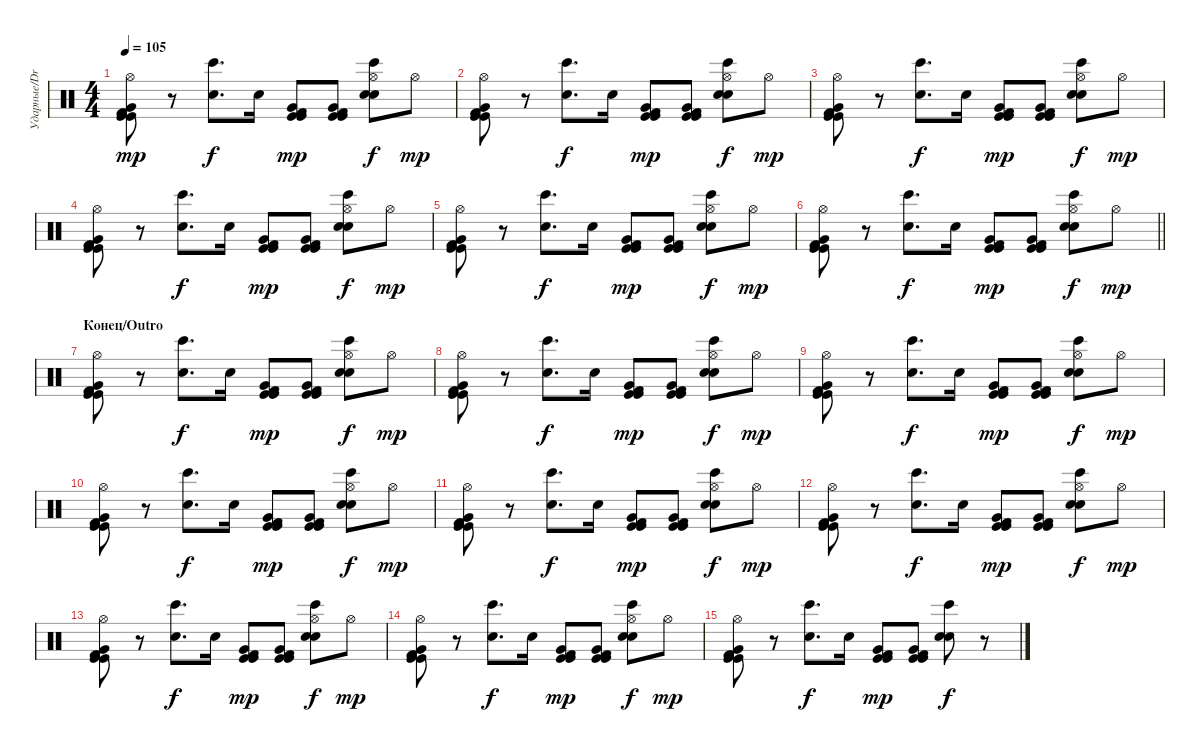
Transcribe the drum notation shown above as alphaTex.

\track ("Ударные/Drums" "Ударные/Dr") {instrument percussion}
\staff {score}
\articulation defaults
\ts (4 4)
\tempo 105
\clef neutral
\ks c
("Hi-Hat (open)" "Kick (hit)" "Kick (hit) 2" "Very Low Tom (hit)" "Kick (hit)").8{dy mp} r.8 ("Snare (hit) 2" "Bongo High (hit)").8{d dy f} "Snare (hit) 2".16 ("Kick (hit)" "Kick (hit) 2" "Very Low Tom (hit)" "Kick (hit)").8{dy mp} ("Kick (hit)" "Kick (hit) 2" "Very Low Tom (hit)" "Kick (hit)").8 ("Hi-Hat (open)" "Snare (hit) 2" "Bongo High (hit)" "Hand Clap (hit)").8{dy f} "Hi-Hat (open)".8{dy mp} |
("Hi-Hat (open)" "Kick (hit)" "Kick (hit) 2" "Very Low Tom (hit)" "Kick (hit)").8 r.8 ("Snare (hit) 2" "Bongo High (hit)").8{d dy f} "Snare (hit) 2".16 ("Kick (hit)" "Kick (hit) 2" "Very Low Tom (hit)" "Kick (hit)").8{dy mp} ("Kick (hit)" "Kick (hit) 2" "Very Low Tom (hit)" "Kick (hit)").8 ("Hi-Hat (open)" "Snare (hit) 2" "Bongo High (hit)" "Hand Clap (hit)").8{dy f} "Hi-Hat (open)".8{dy mp} |
("Hi-Hat (open)" "Kick (hit)" "Kick (hit) 2" "Very Low Tom (hit)" "Kick (hit)").8 r.8 ("Snare (hit) 2" "Bongo High (hit)").8{d dy f} "Snare (hit) 2".16 ("Kick (hit)" "Kick (hit) 2" "Very Low Tom (hit)" "Kick (hit)").8{dy mp} ("Kick (hit)" "Kick (hit) 2" "Very Low Tom (hit)" "Kick (hit)").8 ("Hi-Hat (open)" "Snare (hit) 2" "Bongo High (hit)" "Hand Clap (hit)").8{dy f} "Hi-Hat (open)".8{dy mp} |
("Hi-Hat (open)" "Kick (hit)" "Kick (hit) 2" "Very Low Tom (hit)" "Kick (hit)").8 r.8 ("Snare (hit) 2" "Bongo High (hit)").8{d dy f} "Snare (hit) 2".16 ("Kick (hit)" "Kick (hit) 2" "Very Low Tom (hit)" "Kick (hit)").8{dy mp} ("Kick (hit)" "Kick (hit) 2" "Very Low Tom (hit)" "Kick (hit)").8 ("Hi-Hat (open)" "Snare (hit) 2" "Bongo High (hit)" "Hand Clap (hit)").8{dy f} "Hi-Hat (open)".8{dy mp} |
("Hi-Hat (open)" "Kick (hit)" "Kick (hit) 2" "Very Low Tom (hit)" "Kick (hit)").8 r.8 ("Snare (hit) 2" "Bongo High (hit)").8{d dy f} "Snare (hit) 2".16 ("Kick (hit)" "Kick (hit) 2" "Very Low Tom (hit)" "Kick (hit)").8{dy mp} ("Kick (hit)" "Kick (hit) 2" "Very Low Tom (hit)" "Kick (hit)").8 ("Hi-Hat (open)" "Snare (hit) 2" "Bongo High (hit)" "Hand Clap (hit)").8{dy f} "Hi-Hat (open)".8{dy mp} |
\barLineRight lightlight
("Hi-Hat (open)" "Kick (hit)" "Kick (hit) 2" "Very Low Tom (hit)" "Kick (hit)").8 r.8 ("Snare (hit) 2" "Bongo High (hit)").8{d dy f} "Snare (hit) 2".16 ("Kick (hit)" "Kick (hit) 2" "Very Low Tom (hit)" "Kick (hit)").8{dy mp} ("Kick (hit)" "Kick (hit) 2" "Very Low Tom (hit)" "Kick (hit)").8 ("Hi-Hat (open)" "Snare (hit) 2" "Bongo High (hit)" "Hand Clap (hit)").8{dy f} "Hi-Hat (open)".8{dy mp} |
\section ("" "Конец/Outro")
("Hi-Hat (open)" "Kick (hit)" "Kick (hit) 2" "Very Low Tom (hit)" "Kick (hit)").8 r.8 ("Snare (hit) 2" "Bongo High (hit)").8{d dy f} "Snare (hit) 2".16 ("Kick (hit)" "Kick (hit) 2" "Very Low Tom (hit)" "Kick (hit)").8{dy mp} ("Kick (hit)" "Kick (hit) 2" "Very Low Tom (hit)" "Kick (hit)").8 ("Hi-Hat (open)" "Snare (hit) 2" "Bongo High (hit)" "Hand Clap (hit)").8{dy f} "Hi-Hat (open)".8{dy mp} |
("Hi-Hat (open)" "Kick (hit)" "Kick (hit) 2" "Very Low Tom (hit)" "Kick (hit)").8 r.8 ("Snare (hit) 2" "Bongo High (hit)").8{d dy f} "Snare (hit) 2".16 ("Kick (hit)" "Kick (hit) 2" "Very Low Tom (hit)" "Kick (hit)").8{dy mp} ("Kick (hit)" "Kick (hit) 2" "Very Low Tom (hit)" "Kick (hit)").8 ("Hi-Hat (open)" "Snare (hit) 2" "Bongo High (hit)" "Hand Clap (hit)").8{dy f} "Hi-Hat (open)".8{dy mp} |
("Hi-Hat (open)" "Kick (hit)" "Kick (hit) 2" "Very Low Tom (hit)" "Kick (hit)").8 r.8 ("Snare (hit) 2" "Bongo High (hit)").8{d dy f} "Snare (hit) 2".16 ("Kick (hit)" "Kick (hit) 2" "Very Low Tom (hit)" "Kick (hit)").8{dy mp} ("Kick (hit)" "Kick (hit) 2" "Very Low Tom (hit)" "Kick (hit)").8 ("Hi-Hat (open)" "Snare (hit) 2" "Bongo High (hit)" "Hand Clap (hit)").8{dy f} "Hi-Hat (open)".8{dy mp} |
("Hi-Hat (open)" "Kick (hit)" "Kick (hit) 2" "Very Low Tom (hit)" "Kick (hit)").8 r.8 ("Snare (hit) 2" "Bongo High (hit)").8{d dy f} "Snare (hit) 2".16 ("Kick (hit)" "Kick (hit) 2" "Very Low Tom (hit)" "Kick (hit)").8{dy mp} ("Kick (hit)" "Kick (hit) 2" "Very Low Tom (hit)" "Kick (hit)").8 ("Hi-Hat (open)" "Snare (hit) 2" "Bongo High (hit)" "Hand Clap (hit)").8{dy f} "Hi-Hat (open)".8{dy mp} |
("Hi-Hat (open)" "Kick (hit)" "Kick (hit) 2" "Very Low Tom (hit)" "Kick (hit)").8 r.8 ("Snare (hit) 2" "Bongo High (hit)").8{d dy f} "Snare (hit) 2".16 ("Kick (hit)" "Kick (hit) 2" "Very Low Tom (hit)" "Kick (hit)").8{dy mp} ("Kick (hit)" "Kick (hit) 2" "Very Low Tom (hit)" "Kick (hit)").8 ("Hi-Hat (open)" "Snare (hit) 2" "Bongo High (hit)" "Hand Clap (hit)").8{dy f} "Hi-Hat (open)".8{dy mp} |
("Hi-Hat (open)" "Kick (hit)" "Kick (hit) 2" "Very Low Tom (hit)" "Kick (hit)").8 r.8 ("Snare (hit) 2" "Bongo High (hit)").8{d dy f} "Snare (hit) 2".16 ("Kick (hit)" "Kick (hit) 2" "Very Low Tom (hit)" "Kick (hit)").8{dy mp} ("Kick (hit)" "Kick (hit) 2" "Very Low Tom (hit)" "Kick (hit)").8 ("Hi-Hat (open)" "Snare (hit) 2" "Bongo High (hit)" "Hand Clap (hit)").8{dy f} "Hi-Hat (open)".8{dy mp} |
("Hi-Hat (open)" "Kick (hit)" "Kick (hit) 2" "Very Low Tom (hit)" "Kick (hit)").8 r.8 ("Snare (hit) 2" "Bongo High (hit)").8{d dy f} "Snare (hit) 2".16 ("Kick (hit)" "Kick (hit) 2" "Very Low Tom (hit)" "Kick (hit)").8{dy mp} ("Kick (hit)" "Kick (hit) 2" "Very Low Tom (hit)" "Kick (hit)").8 ("Hi-Hat (open)" "Snare (hit) 2" "Bongo High (hit)" "Hand Clap (hit)").8{dy f} "Hi-Hat (open)".8{dy mp} |
("Hi-Hat (open)" "Kick (hit)" "Kick (hit) 2" "Very Low Tom (hit)" "Kick (hit)").8 r.8 ("Snare (hit) 2" "Bongo High (hit)").8{d dy f} "Snare (hit) 2".16 ("Kick (hit)" "Kick (hit) 2" "Very Low Tom (hit)" "Kick (hit)").8{dy mp} ("Kick (hit)" "Kick (hit) 2" "Very Low Tom (hit)" "Kick (hit)").8 ("Hi-Hat (open)" "Snare (hit) 2" "Bongo High (hit)" "Hand Clap (hit)").8{dy f} "Hi-Hat (open)".8{dy mp} |
("Hi-Hat (open)" "Kick (hit)" "Kick (hit) 2" "Very Low Tom (hit)" "Kick (hit)").8 r.8 ("Snare (hit) 2" "Bongo High (hit)").8{d dy f} "Snare (hit) 2".16 ("Kick (hit)" "Kick (hit) 2" "Very Low Tom (hit)" "Kick (hit)").8{dy mp} ("Kick (hit)" "Kick (hit) 2" "Very Low Tom (hit)" "Kick (hit)").8 ("Snare (hit) 2" "Bongo High (hit)" "Hand Clap (hit)").8{dy f} r.8
